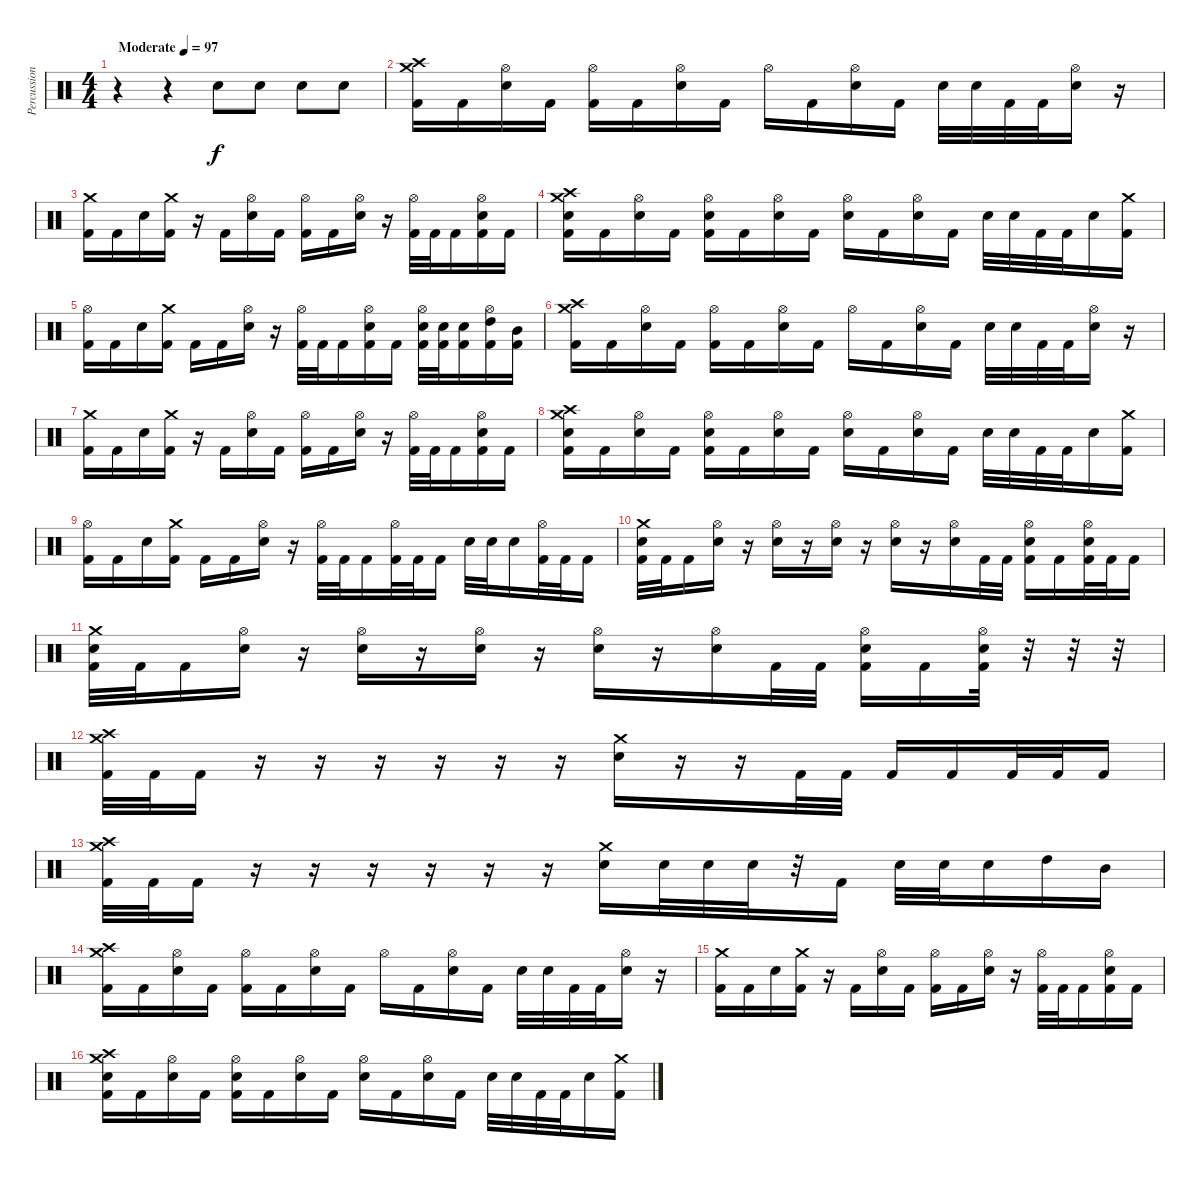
\track ("Percussion" "Percussion") {instrument percussion}
\staff {score}
\articulation defaults
\ts (4 4)
\tempo (97 "Moderate")
\clef neutral
\ks c
r.4{dy f} r.4 "Electric Snare (hit)".8 "Electric Snare (hit)".8 "Electric Snare (hit)".8 "Electric Snare (hit)".8 |
("Crash medium (hit)" "Crash high (hit)" "Kick (hit) 2").16 "Kick (hit) 2".16 ("Hi-Hat (open)" "Electric Snare (hit)").16 "Kick (hit) 2".16 ("Hi-Hat (open)" "Kick (hit) 2").16 "Kick (hit) 2".16 ("Hi-Hat (open)" "Electric Snare (hit)").16 "Kick (hit) 2".16 "Hi-Hat (open)".16 "Kick (hit) 2".16 ("Hi-Hat (open)" "Electric Snare (hit)").16 "Kick (hit) 2".16 "Electric Snare (hit)".32 "Electric Snare (hit)".32 "Kick (hit) 2".32 "Kick (hit) 2".32 ("Hi-Hat (open)" "Electric Snare (hit)").16 r.16 |
("Crash medium (hit)" "Kick (hit) 2").16 "Kick (hit) 2".16 "Electric Snare (hit)".16 ("Crash medium (hit)" "Kick (hit) 2").16 r.16 "Kick (hit) 2".16 ("Hi-Hat (open)" "Electric Snare (hit)").16 "Kick (hit) 2".16 ("Hi-Hat (open)" "Kick (hit) 2").16 "Kick (hit) 2".16 ("Hi-Hat (open)" "Electric Snare (hit)").16 r.16 ("Hi-Hat (open)" "Kick (hit) 2").32 "Kick (hit) 2".32 "Kick (hit) 2".16 ("Hi-Hat (open)" "Electric Snare (hit)" "Kick (hit) 2").16 "Kick (hit) 2".16 |
("Crash medium (hit)" "Crash high (hit)" "Electric Snare (hit)" "Kick (hit) 2").16 "Kick (hit) 2".16 ("Hi-Hat (open)" "Electric Snare (hit)").16 "Kick (hit) 2".16 ("Hi-Hat (open)" "Electric Snare (hit)" "Kick (hit) 2").16 "Kick (hit) 2".16 ("Hi-Hat (open)" "Electric Snare (hit)").16 "Kick (hit) 2".16 ("Hi-Hat (open)" "Electric Snare (hit)").16 "Kick (hit) 2".16 ("Hi-Hat (open)" "Electric Snare (hit)").16 "Kick (hit) 2".16 "Electric Snare (hit)".32 "Electric Snare (hit)".32 "Kick (hit) 2".32 "Kick (hit) 2".32 "Electric Snare (hit)".16 ("Crash medium (hit)" "Kick (hit) 2").16 |
("Hi-Hat (open)" "Kick (hit) 2").16 "Kick (hit) 2".16 "Electric Snare (hit)".16 ("Crash medium (hit)" "Kick (hit) 2").16 "Kick (hit) 2".16 "Kick (hit) 2".16 ("Hi-Hat (open)" "Electric Snare (hit)").16 r.16 ("Hi-Hat (open)" "Kick (hit) 2").32 "Kick (hit) 2".32 "Kick (hit) 2".16 ("Hi-Hat (open)" "Electric Snare (hit)" "Kick (hit) 2").16 "Kick (hit) 2".16 ("Hi-Hat (open)" "Electric Snare (hit)" "Kick (hit) 2").32 ("Electric Snare (hit)" "Kick (hit) 2").32 ("Electric Snare (hit)" "Kick (hit) 2").16 ("Hi-Hat (open)" "High Tom (hit)" "Kick (hit) 2").16 ("Mid Tom (hit)" "Kick (hit) 2").16 |
("Crash medium (hit)" "Crash high (hit)" "Kick (hit) 2").16 "Kick (hit) 2".16 ("Hi-Hat (open)" "Electric Snare (hit)").16 "Kick (hit) 2".16 ("Hi-Hat (open)" "Kick (hit) 2").16 "Kick (hit) 2".16 ("Hi-Hat (open)" "Electric Snare (hit)").16 "Kick (hit) 2".16 "Hi-Hat (open)".16 "Kick (hit) 2".16 ("Hi-Hat (open)" "Electric Snare (hit)").16 "Kick (hit) 2".16 "Electric Snare (hit)".32 "Electric Snare (hit)".32 "Kick (hit) 2".32 "Kick (hit) 2".32 ("Hi-Hat (open)" "Electric Snare (hit)").16 r.16 |
("Crash medium (hit)" "Kick (hit) 2").16 "Kick (hit) 2".16 "Electric Snare (hit)".16 ("Crash medium (hit)" "Kick (hit) 2").16 r.16 "Kick (hit) 2".16 ("Hi-Hat (open)" "Electric Snare (hit)").16 "Kick (hit) 2".16 ("Hi-Hat (open)" "Kick (hit) 2").16 "Kick (hit) 2".16 ("Hi-Hat (open)" "Electric Snare (hit)").16 r.16 ("Hi-Hat (open)" "Kick (hit) 2").32 "Kick (hit) 2".32 "Kick (hit) 2".16 ("Hi-Hat (open)" "Electric Snare (hit)" "Kick (hit) 2").16 "Kick (hit) 2".16 |
("Crash medium (hit)" "Crash high (hit)" "Electric Snare (hit)" "Kick (hit) 2").16 "Kick (hit) 2".16 ("Hi-Hat (open)" "Electric Snare (hit)").16 "Kick (hit) 2".16 ("Hi-Hat (open)" "Electric Snare (hit)" "Kick (hit) 2").16 "Kick (hit) 2".16 ("Hi-Hat (open)" "Electric Snare (hit)").16 "Kick (hit) 2".16 ("Hi-Hat (open)" "Electric Snare (hit)").16 "Kick (hit) 2".16 ("Hi-Hat (open)" "Electric Snare (hit)").16 "Kick (hit) 2".16 "Electric Snare (hit)".32 "Electric Snare (hit)".32 "Kick (hit) 2".32 "Kick (hit) 2".32 "Electric Snare (hit)".16 ("Crash medium (hit)" "Kick (hit) 2").16 |
("Hi-Hat (open)" "Kick (hit) 2").16 "Kick (hit) 2".16 "Electric Snare (hit)".16 ("Crash medium (hit)" "Kick (hit) 2").16 "Kick (hit) 2".16 "Kick (hit) 2".16 ("Hi-Hat (open)" "Electric Snare (hit)").16 r.16 ("Hi-Hat (open)" "Kick (hit) 2").32 "Kick (hit) 2".32 "Kick (hit) 2".16 ("Hi-Hat (open)" "Kick (hit) 2").32 "Kick (hit) 2".32 "Kick (hit) 2".16 "Electric Snare (hit)".32 "Electric Snare (hit)".32 "Electric Snare (hit)".16 ("Hi-Hat (open)" "Kick (hit) 2").32 "Kick (hit) 2".32 "Kick (hit) 2".16 |
("Crash medium (hit)" "Electric Snare (hit)" "Kick (hit) 2").32 "Kick (hit) 2".32 "Kick (hit) 2".16 ("Hi-Hat (open)" "Electric Snare (hit)").16 r.16 ("Hi-Hat (open)" "Electric Snare (hit)").16 r.16 ("Hi-Hat (open)" "Electric Snare (hit)").16 r.16 ("Hi-Hat (open)" "Electric Snare (hit)").16 r.16 ("Hi-Hat (open)" "Electric Snare (hit)").16 "Kick (hit) 2".32 "Kick (hit) 2".32 ("Hi-Hat (open)" "Electric Snare (hit)" "Kick (hit) 2").16 "Kick (hit) 2".16 ("Hi-Hat (open)" "Electric Snare (hit)" "Kick (hit) 2").32 "Kick (hit) 2".32 "Kick (hit) 2".16 |
("Crash medium (hit)" "Electric Snare (hit)" "Kick (hit) 2").32 "Kick (hit) 2".32 "Kick (hit) 2".16 ("Hi-Hat (open)" "Electric Snare (hit)").16 r.16 ("Hi-Hat (open)" "Electric Snare (hit)").16 r.16 ("Hi-Hat (open)" "Electric Snare (hit)").16 r.16 ("Hi-Hat (open)" "Electric Snare (hit)").16 r.16 ("Hi-Hat (open)" "Electric Snare (hit)").16 "Kick (hit) 2".32 "Kick (hit) 2".32 ("Hi-Hat (open)" "Electric Snare (hit)" "Kick (hit) 2").16 "Kick (hit) 2".16 ("Hi-Hat (open)" "Electric Snare (hit)" "Kick (hit) 2").32 r.32 r.32 r.32 |
("Crash medium (hit)" "Crash high (hit)" "Kick (hit) 2").32 "Kick (hit) 2".32 "Kick (hit) 2".16 r.16 r.16 r.16 r.16 r.16 r.16 ("Crash medium (hit)" "Electric Snare (hit)").16 r.16 r.16 "Kick (hit) 2".32 "Kick (hit) 2".32 "Kick (hit) 2".16 "Kick (hit) 2".16 "Kick (hit) 2".32 "Kick (hit) 2".32 "Kick (hit) 2".16 |
("Crash medium (hit)" "Crash high (hit)" "Kick (hit) 2").32 "Kick (hit) 2".32 "Kick (hit) 2".16 r.16 r.16 r.16 r.16 r.16 r.16 ("Crash medium (hit)" "Electric Snare (hit)").16 "Electric Snare (hit)".32 "Electric Snare (hit)".32 "Electric Snare (hit)".32 r.32 "Kick (hit) 2".16 "Electric Snare (hit)".32 "Electric Snare (hit)".32 "Electric Snare (hit)".16 "High Tom (hit)".16 "Mid Tom (hit)".16 |
("Crash medium (hit)" "Crash high (hit)" "Kick (hit) 2").16 "Kick (hit) 2".16 ("Hi-Hat (open)" "Electric Snare (hit)").16 "Kick (hit) 2".16 ("Hi-Hat (open)" "Kick (hit) 2").16 "Kick (hit) 2".16 ("Hi-Hat (open)" "Electric Snare (hit)").16 "Kick (hit) 2".16 "Hi-Hat (open)".16 "Kick (hit) 2".16 ("Hi-Hat (open)" "Electric Snare (hit)").16 "Kick (hit) 2".16 "Electric Snare (hit)".32 "Electric Snare (hit)".32 "Kick (hit) 2".32 "Kick (hit) 2".32 ("Hi-Hat (open)" "Electric Snare (hit)").16 r.16 |
("Crash medium (hit)" "Kick (hit) 2").16 "Kick (hit) 2".16 "Electric Snare (hit)".16 ("Crash medium (hit)" "Kick (hit) 2").16 r.16 "Kick (hit) 2".16 ("Hi-Hat (open)" "Electric Snare (hit)").16 "Kick (hit) 2".16 ("Hi-Hat (open)" "Kick (hit) 2").16 "Kick (hit) 2".16 ("Hi-Hat (open)" "Electric Snare (hit)").16 r.16 ("Hi-Hat (open)" "Kick (hit) 2").32 "Kick (hit) 2".32 "Kick (hit) 2".16 ("Hi-Hat (open)" "Electric Snare (hit)" "Kick (hit) 2").16 "Kick (hit) 2".16 |
("Crash medium (hit)" "Crash high (hit)" "Electric Snare (hit)" "Kick (hit) 2").16 "Kick (hit) 2".16 ("Hi-Hat (open)" "Electric Snare (hit)").16 "Kick (hit) 2".16 ("Hi-Hat (open)" "Electric Snare (hit)" "Kick (hit) 2").16 "Kick (hit) 2".16 ("Hi-Hat (open)" "Electric Snare (hit)").16 "Kick (hit) 2".16 ("Hi-Hat (open)" "Electric Snare (hit)").16 "Kick (hit) 2".16 ("Hi-Hat (open)" "Electric Snare (hit)").16 "Kick (hit) 2".16 "Electric Snare (hit)".32 "Electric Snare (hit)".32 "Kick (hit) 2".32 "Kick (hit) 2".32 "Electric Snare (hit)".16 ("Crash medium (hit)" "Kick (hit) 2").16
